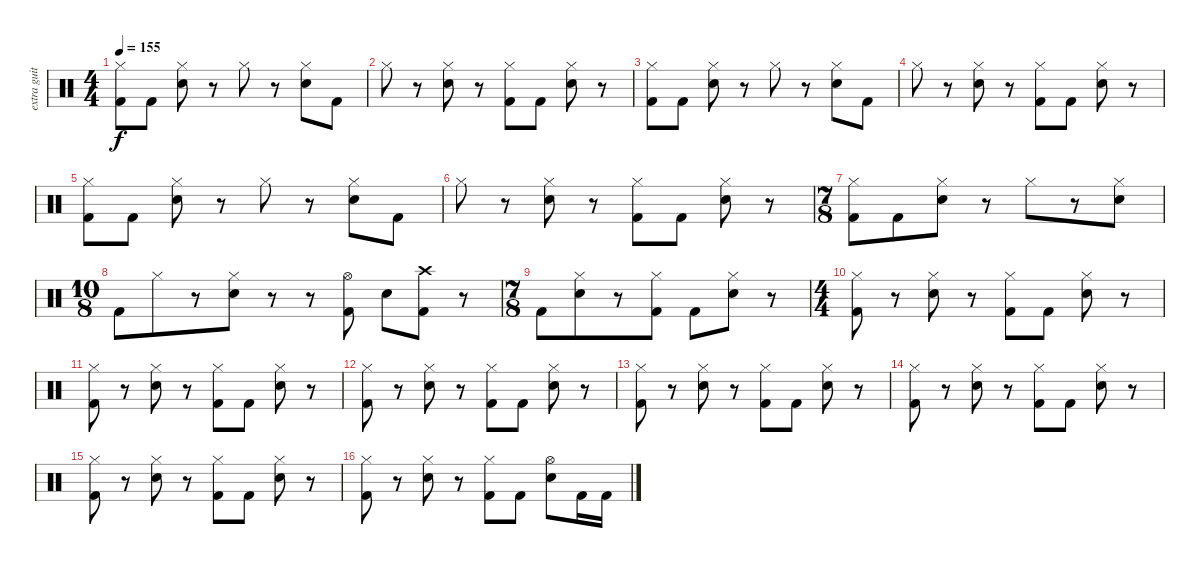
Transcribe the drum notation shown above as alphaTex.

\track ("extra guitar" "extra guit") {instrument percussion}
\staff {score}
\articulation defaults
\ts (4 4)
\tempo 155
\clef neutral
\ks c
("Hi-Hat (closed)" "Kick (hit) 2").8{dy f} "Kick (hit) 2".8 ("Hi-Hat (closed)" "Electric Snare (hit)").8 r.8 "Hi-Hat (closed)".8 r.8 ("Hi-Hat (closed)" "Electric Snare (hit)").8 "Kick (hit) 2".8 |
"Hi-Hat (closed)".8 r.8 ("Hi-Hat (closed)" "Electric Snare (hit)").8 r.8 ("Hi-Hat (closed)" "Kick (hit) 2").8 "Kick (hit) 2".8 ("Hi-Hat (closed)" "Electric Snare (hit)").8 r.8 |
("Hi-Hat (closed)" "Kick (hit) 2").8 "Kick (hit) 2".8 ("Hi-Hat (closed)" "Electric Snare (hit)").8 r.8 "Hi-Hat (closed)".8 r.8 ("Hi-Hat (closed)" "Electric Snare (hit)").8 "Kick (hit) 2".8 |
"Hi-Hat (closed)".8 r.8 ("Hi-Hat (closed)" "Electric Snare (hit)").8 r.8 ("Hi-Hat (closed)" "Kick (hit) 2").8 "Kick (hit) 2".8 ("Hi-Hat (closed)" "Electric Snare (hit)").8 r.8 |
("Hi-Hat (closed)" "Kick (hit) 2").8 "Kick (hit) 2".8 ("Hi-Hat (closed)" "Electric Snare (hit)").8 r.8 "Hi-Hat (closed)".8 r.8 ("Hi-Hat (closed)" "Electric Snare (hit)").8 "Kick (hit) 2".8 |
"Hi-Hat (closed)".8 r.8 ("Hi-Hat (closed)" "Electric Snare (hit)").8 r.8 ("Hi-Hat (closed)" "Kick (hit) 2").8 "Kick (hit) 2".8 ("Hi-Hat (closed)" "Electric Snare (hit)").8 r.8 |
\ts (7 8)
("Hi-Hat (closed)" "Kick (hit) 2").8 "Kick (hit) 2".8 ("Hi-Hat (closed)" "Electric Snare (hit)").8 r.8 "Hi-Hat (closed)".8 r.8 ("Hi-Hat (closed)" "Electric Snare (hit)").8 |
\ts (10 8)
"Kick (hit) 2".8 "Hi-Hat (closed)".8 r.8 ("Hi-Hat (closed)" "Electric Snare (hit)").8 r.8 r.8 ("Hi-Hat (open)" "Kick (hit) 2").8 "Electric Snare (hit)".8 ("Crash high (hit)" "Kick (hit) 2").8 r.8 |
\ts (7 8)
"Kick (hit) 2".8 ("Hi-Hat (closed)" "Electric Snare (hit)").8 r.8 ("Hi-Hat (closed)" "Kick (hit) 2").8 "Kick (hit) 2".8 ("Hi-Hat (closed)" "Electric Snare (hit)").8 r.8 |
\ts (4 4)
("Hi-Hat (closed)" "Kick (hit) 2").8 r.8 ("Hi-Hat (closed)" "Electric Snare (hit)").8 r.8 ("Hi-Hat (closed)" "Kick (hit) 2").8 "Kick (hit) 2".8 ("Hi-Hat (closed)" "Electric Snare (hit)").8 r.8 |
("Hi-Hat (closed)" "Kick (hit) 2").8 r.8 ("Hi-Hat (closed)" "Electric Snare (hit)").8 r.8 ("Hi-Hat (closed)" "Kick (hit) 2").8 "Kick (hit) 2".8 ("Hi-Hat (closed)" "Electric Snare (hit)").8 r.8 |
("Hi-Hat (closed)" "Kick (hit) 2").8 r.8 ("Hi-Hat (closed)" "Electric Snare (hit)").8 r.8 ("Hi-Hat (closed)" "Kick (hit) 2").8 "Kick (hit) 2".8 ("Hi-Hat (closed)" "Electric Snare (hit)").8 r.8 |
("Hi-Hat (closed)" "Kick (hit) 2").8 r.8 ("Hi-Hat (closed)" "Electric Snare (hit)").8 r.8 ("Hi-Hat (closed)" "Kick (hit) 2").8 "Kick (hit) 2".8 ("Hi-Hat (closed)" "Electric Snare (hit)").8 r.8 |
("Hi-Hat (closed)" "Kick (hit) 2").8 r.8 ("Hi-Hat (closed)" "Electric Snare (hit)").8 r.8 ("Hi-Hat (closed)" "Kick (hit) 2").8 "Kick (hit) 2".8 ("Hi-Hat (closed)" "Electric Snare (hit)").8 r.8 |
("Hi-Hat (closed)" "Kick (hit) 2").8 r.8 ("Hi-Hat (closed)" "Electric Snare (hit)").8 r.8 ("Hi-Hat (closed)" "Kick (hit) 2").8 "Kick (hit) 2".8 ("Hi-Hat (closed)" "Electric Snare (hit)").8 r.8 |
("Hi-Hat (closed)" "Kick (hit) 2").8 r.8 ("Hi-Hat (closed)" "Electric Snare (hit)").8 r.8 ("Hi-Hat (closed)" "Kick (hit) 2").8 "Kick (hit) 2".8 ("Hi-Hat (open)" "Electric Snare (hit)").8 "Kick (hit) 2".16 "Kick (hit) 2".16
